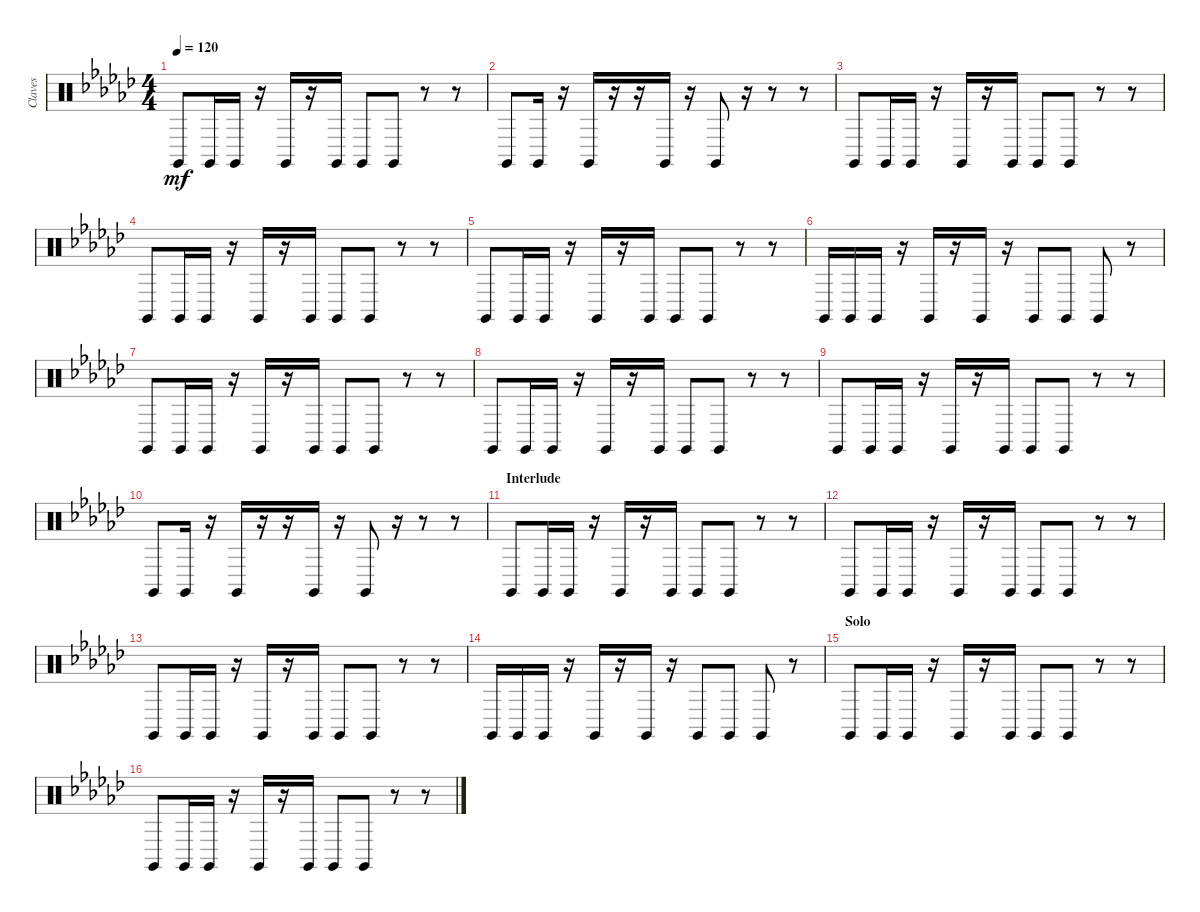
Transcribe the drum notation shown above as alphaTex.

\track ("Claves" "Claves") {instrument percussion}
\staff {score}
\articulation defaults
\ts (4 4)
\tempo 120
\clef neutral
\ks ebminor "Claves (hit)".8{dy mf} "Claves (hit)".16 "Claves (hit)".16
r.16 "Claves (hit)".16 r.16 "Claves (hit)".16 "Claves (hit)".8 "Claves (hit)".8 r.8 r.8 |
"Claves (hit)".8 "Claves (hit)".16 r.16 "Claves (hit)".16 r.16 r.16 "Claves (hit)".16 r.16 "Claves (hit)".8 r.16 r.8 r.8 |
"Claves (hit)".8 "Claves (hit)".16 "Claves (hit)".16 r.16 "Claves (hit)".16 r.16 "Claves (hit)".16 "Claves (hit)".8 "Claves (hit)".8 r.8 r.8 |
"Claves (hit)".8 "Claves (hit)".16 "Claves (hit)".16 r.16 "Claves (hit)".16 r.16 "Claves (hit)".16 "Claves (hit)".8 "Claves (hit)".8 r.8 r.8 |
"Claves (hit)".8 "Claves (hit)".16 "Claves (hit)".16 r.16 "Claves (hit)".16 r.16 "Claves (hit)".16 "Claves (hit)".8 "Claves (hit)".8 r.8 r.8 |
"Claves (hit)".16 "Claves (hit)".16 "Claves (hit)".16 r.16 "Claves (hit)".16 r.16 "Claves (hit)".16 r.16 "Claves (hit)".8 "Claves (hit)".8 "Claves (hit)".8 r.8 |
"Claves (hit)".8 "Claves (hit)".16 "Claves (hit)".16 r.16 "Claves (hit)".16 r.16 "Claves (hit)".16 "Claves (hit)".8 "Claves (hit)".8 r.8 r.8 |
"Claves (hit)".8 "Claves (hit)".16 "Claves (hit)".16 r.16 "Claves (hit)".16 r.16 "Claves (hit)".16 "Claves (hit)".8 "Claves (hit)".8 r.8 r.8 |
"Claves (hit)".8 "Claves (hit)".16 "Claves (hit)".16 r.16 "Claves (hit)".16 r.16 "Claves (hit)".16 "Claves (hit)".8 "Claves (hit)".8 r.8 r.8 |
"Claves (hit)".8 "Claves (hit)".16 r.16 "Claves (hit)".16 r.16 r.16 "Claves (hit)".16 r.16 "Claves (hit)".8 r.16 r.8 r.8 |
\section ("" "Interlude")
"Claves (hit)".8 "Claves (hit)".16 "Claves (hit)".16 r.16 "Claves (hit)".16 r.16 "Claves (hit)".16 "Claves (hit)".8 "Claves (hit)".8 r.8 r.8 |
"Claves (hit)".8 "Claves (hit)".16 "Claves (hit)".16 r.16 "Claves (hit)".16 r.16 "Claves (hit)".16 "Claves (hit)".8 "Claves (hit)".8 r.8 r.8 |
"Claves (hit)".8 "Claves (hit)".16 "Claves (hit)".16 r.16 "Claves (hit)".16 r.16 "Claves (hit)".16 "Claves (hit)".8 "Claves (hit)".8 r.8 r.8 |
"Claves (hit)".16 "Claves (hit)".16 "Claves (hit)".16 r.16 "Claves (hit)".16 r.16 "Claves (hit)".16 r.16 "Claves (hit)".8 "Claves (hit)".8 "Claves (hit)".8 r.8 |
\section ("" "Solo")
"Claves (hit)".8 "Claves (hit)".16 "Claves (hit)".16 r.16 "Claves (hit)".16 r.16 "Claves (hit)".16 "Claves (hit)".8 "Claves (hit)".8 r.8 r.8 |
"Claves (hit)".8 "Claves (hit)".16 "Claves (hit)".16 r.16 "Claves (hit)".16 r.16 "Claves (hit)".16 "Claves (hit)".8 "Claves (hit)".8 r.8 r.8
